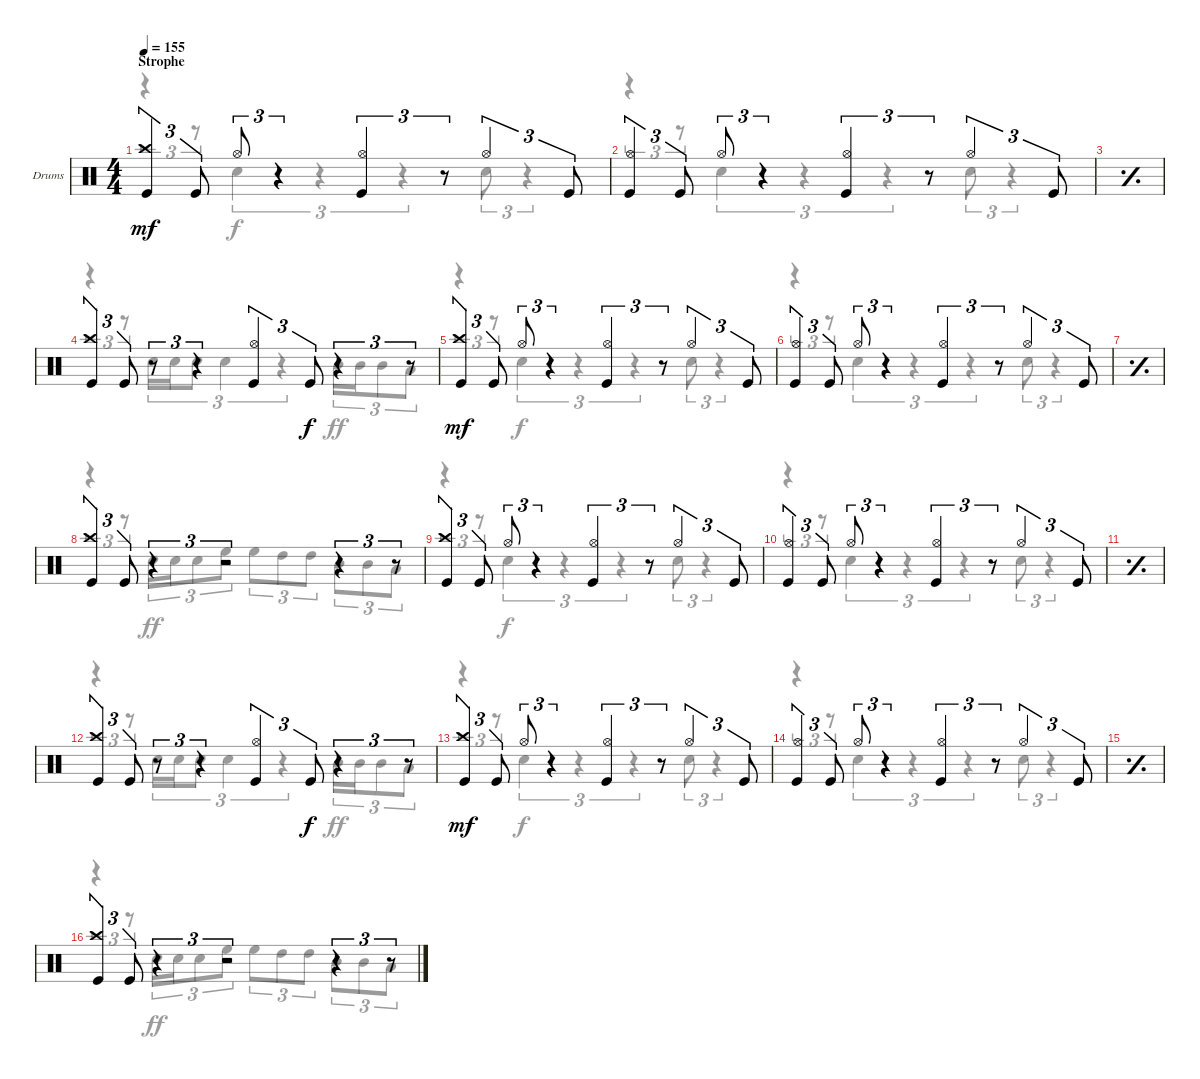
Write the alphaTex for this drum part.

\defaultSystemsLayout 4
\bracketExtendMode groupsimilarinstruments
\firstSystemTrackNameOrientation horizontal
\otherSystemsTrackNameOrientation horizontal
\track ("Drumkit" "Drums") {instrument percussion}
\staff {score}
\articulation defaults
\voice
\ts (4 4)
\section ("" "Strophe")
\tempo 155
\clef neutral
\ks c
("Kick (hit)" "Crash high (hit)").4{tu (3 2) dy mf} "Kick (hit)".8{tu (3 2)} "Hi-Hat (open)".8{tu (3 2)} r.4{tu (3 2)} ("Kick (hit)" "Hi-Hat (open)").4{tu (3 2)} r.8{tu (3 2)} "Hi-Hat (open)".4{tu (3 2)} "Kick (hit)".8{tu (3 2)} |
("Kick (hit)" "Hi-Hat (open)").4{tu (3 2)} "Kick (hit)".8{tu (3 2)} "Hi-Hat (open)".8{tu (3 2)} r.4{tu (3 2)} ("Kick (hit)" "Hi-Hat (open)").4{tu (3 2)} r.8{tu (3 2)} "Hi-Hat (open)".4{tu (3 2)} "Kick (hit)".8{tu (3 2)} |
\simile simple
|
\simile none
("Kick (hit)" "Crash high (hit)").4{tu (3 2)} "Kick (hit)".8{tu (3 2)} r.8{tu (3 2)} r.4{tu (3 2)} ("Kick (hit)" "Hi-Hat (open)").4{tu (3 2)} "Kick (hit)".8{tu (3 2) dy f} r.4{tu (3 2)} r.8{tu (3 2)} |
("Kick (hit)" "Crash high (hit)").4{tu (3 2) dy mf} "Kick (hit)".8{tu (3 2)} "Hi-Hat (open)".8{tu (3 2)} r.4{tu (3 2)} ("Kick (hit)" "Hi-Hat (open)").4{tu (3 2)} r.8{tu (3 2)} "Hi-Hat (open)".4{tu (3 2)} "Kick (hit)".8{tu (3 2)} |
("Kick (hit)" "Hi-Hat (open)").4{tu (3 2)} "Kick (hit)".8{tu (3 2)} "Hi-Hat (open)".8{tu (3 2)} r.4{tu (3 2)} ("Kick (hit)" "Hi-Hat (open)").4{tu (3 2)} r.8{tu (3 2)} "Hi-Hat (open)".4{tu (3 2)} "Kick (hit)".8{tu (3 2)} |
\simile simple
|
\simile none
("Kick (hit)" "Crash high (hit)").4{tu (3 2)} "Kick (hit)".8{tu (3 2)} r.4{tu (3 2)} r.2{tu (3 2)} r.4{tu (3 2)} r.8{tu (3 2)} |
("Kick (hit)" "Crash high (hit)").4{tu (3 2)} "Kick (hit)".8{tu (3 2)} "Hi-Hat (open)".8{tu (3 2)} r.4{tu (3 2)} ("Kick (hit)" "Hi-Hat (open)").4{tu (3 2)} r.8{tu (3 2)} "Hi-Hat (open)".4{tu (3 2)} "Kick (hit)".8{tu (3 2)} |
("Kick (hit)" "Hi-Hat (open)").4{tu (3 2)} "Kick (hit)".8{tu (3 2)} "Hi-Hat (open)".8{tu (3 2)} r.4{tu (3 2)} ("Kick (hit)" "Hi-Hat (open)").4{tu (3 2)} r.8{tu (3 2)} "Hi-Hat (open)".4{tu (3 2)} "Kick (hit)".8{tu (3 2)} |
\simile simple
|
\simile none
("Kick (hit)" "Crash high (hit)").4{tu (3 2)} "Kick (hit)".8{tu (3 2)} r.8{tu (3 2)} r.4{tu (3 2)} ("Kick (hit)" "Hi-Hat (open)").4{tu (3 2)} "Kick (hit)".8{tu (3 2) dy f} r.4{tu (3 2)} r.8{tu (3 2)} |
("Kick (hit)" "Crash high (hit)").4{tu (3 2) dy mf} "Kick (hit)".8{tu (3 2)} "Hi-Hat (open)".8{tu (3 2)} r.4{tu (3 2)} ("Kick (hit)" "Hi-Hat (open)").4{tu (3 2)} r.8{tu (3 2)} "Hi-Hat (open)".4{tu (3 2)} "Kick (hit)".8{tu (3 2)} |
("Kick (hit)" "Hi-Hat (open)").4{tu (3 2)} "Kick (hit)".8{tu (3 2)} "Hi-Hat (open)".8{tu (3 2)} r.4{tu (3 2)} ("Kick (hit)" "Hi-Hat (open)").4{tu (3 2)} r.8{tu (3 2)} "Hi-Hat (open)".4{tu (3 2)} "Kick (hit)".8{tu (3 2)} |
\simile simple
|
\simile none
("Kick (hit)" "Crash high (hit)").4{tu (3 2)} "Kick (hit)".8{tu (3 2)} r.4{tu (3 2)} r.2{tu (3 2)} r.4{tu (3 2)} r.8{tu (3 2)}
\voice
\clef neutral
\ottava regular
\simile none
\ks c
r.4{tu (3 2) dy f} r.8{tu (3 2)} "Snare (hit) 2".4{tu (3 2)} r.4{tu (3 2)} r.4{tu (3 2)} "Snare (hit) 2".8{tu (3 2)} r.4{tu (3 2)} |
r.4{tu (3 2)} r.8{tu (3 2)} "Snare (hit) 2".4{tu (3 2)} r.4{tu (3 2)} r.4{tu (3 2)} "Snare (hit) 2".8{tu (3 2)} r.4{tu (3 2)} |
\simile simple
|
\simile none
r.4{tu (3 2)} r.8{tu (3 2)} "Snare (hit) 2".16{tu (3 2)} "Snare (hit) 2".16{tu (3 2)} "Snare (hit) 2".8{tu (3 2)} "Snare (hit) 2".4{tu (3 2)} r.4{tu (3 2)} "Mid Tom (hit)".16{tu (3 2) dy ff} "Mid Tom (hit)".16{tu (3 2)} "Mid Tom (hit)".8{tu (3 2)} "Low Tom (hit)".8{tu (3 2)} |
r.4{tu (3 2)} r.8{tu (3 2)} "Snare (hit) 2".4{tu (3 2) dy f} r.4{tu (3 2)} r.4{tu (3 2)} "Snare (hit) 2".8{tu (3 2)} r.4{tu (3 2)} |
r.4{tu (3 2)} r.8{tu (3 2)} "Snare (hit) 2".4{tu (3 2)} r.4{tu (3 2)} r.4{tu (3 2)} "Snare (hit) 2".8{tu (3 2)} r.4{tu (3 2)} |
\simile simple
|
\simile none
r.4{tu (3 2)} r.8{tu (3 2)} "Snare (hit) 2".16{tu (3 2) dy ff} "Snare (hit) 2".16{tu (3 2)} "Snare (hit) 2".8{tu (3 2)} "High Floor Tom (hit)".8{tu (3 2)} "High Floor Tom (hit)".8{tu (3 2)} "High Tom (hit)".8{tu (3 2)} "High Tom (hit)".8{tu (3 2)} "Mid Tom (hit)".8{tu (3 2)} "Mid Tom (hit)".8{tu (3 2)} "Low Tom (hit)".8{tu (3 2)} |
r.4{tu (3 2)} r.8{tu (3 2)} "Snare (hit) 2".4{tu (3 2) dy f} r.4{tu (3 2)} r.4{tu (3 2)} "Snare (hit) 2".8{tu (3 2)} r.4{tu (3 2)} |
r.4{tu (3 2)} r.8{tu (3 2)} "Snare (hit) 2".4{tu (3 2)} r.4{tu (3 2)} r.4{tu (3 2)} "Snare (hit) 2".8{tu (3 2)} r.4{tu (3 2)} |
\simile simple
|
\simile none
r.4{tu (3 2)} r.8{tu (3 2)} "Snare (hit) 2".16{tu (3 2)} "Snare (hit) 2".16{tu (3 2)} "Snare (hit) 2".8{tu (3 2)} "Snare (hit) 2".4{tu (3 2)} r.4{tu (3 2)} "Mid Tom (hit)".16{tu (3 2) dy ff} "Mid Tom (hit)".16{tu (3 2)} "Mid Tom (hit)".8{tu (3 2)} "Low Tom (hit)".8{tu (3 2)} |
r.4{tu (3 2)} r.8{tu (3 2)} "Snare (hit) 2".4{tu (3 2) dy f} r.4{tu (3 2)} r.4{tu (3 2)} "Snare (hit) 2".8{tu (3 2)} r.4{tu (3 2)} |
r.4{tu (3 2)} r.8{tu (3 2)} "Snare (hit) 2".4{tu (3 2)} r.4{tu (3 2)} r.4{tu (3 2)} "Snare (hit) 2".8{tu (3 2)} r.4{tu (3 2)} |
\simile simple
|
\simile none
r.4{tu (3 2)} r.8{tu (3 2)} "Snare (hit) 2".16{tu (3 2) dy ff} "Snare (hit) 2".16{tu (3 2)} "Snare (hit) 2".8{tu (3 2)} "High Floor Tom (hit)".8{tu (3 2)} "High Floor Tom (hit)".8{tu (3 2)} "High Tom (hit)".8{tu (3 2)} "High Tom (hit)".8{tu (3 2)} "Mid Tom (hit)".8{tu (3 2)} "Mid Tom (hit)".8{tu (3 2)} "Low Tom (hit)".8{tu (3 2)}
